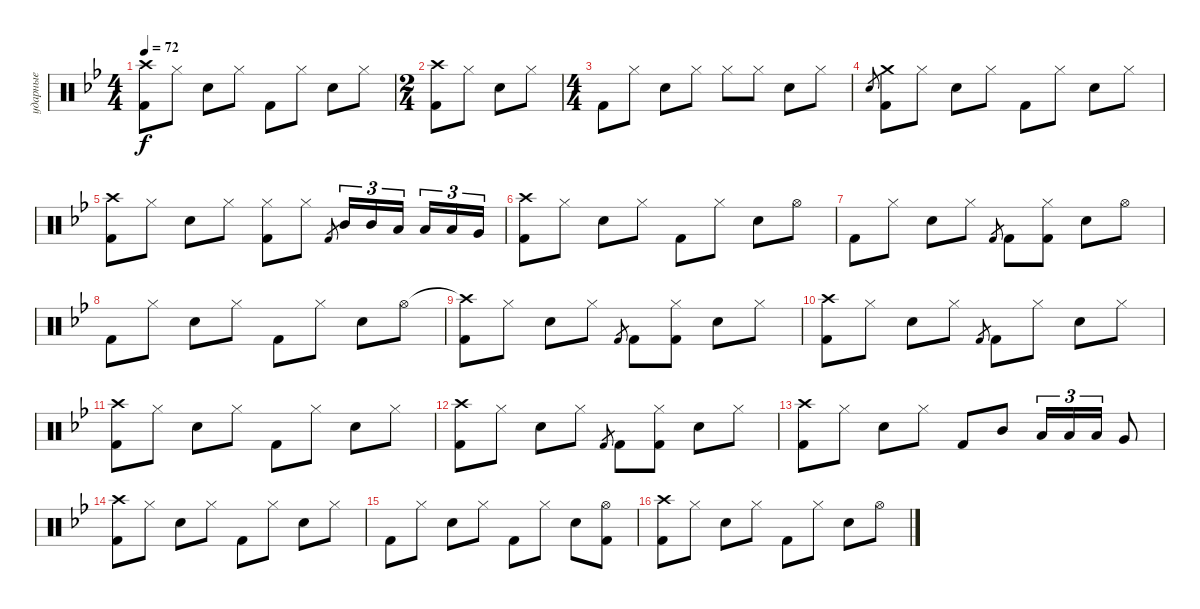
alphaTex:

\track ("ударные" "ударные") {instrument percussion}
\staff {score}
\articulation defaults
\ts (4 4)
\tempo 72
\clef neutral
\ks gminor
("Crash high (hit)" "Kick (hit) 2").8{dy f} "Hi-Hat (closed)".8 "Electric Snare (hit)".8 "Hi-Hat (closed)".8 "Kick (hit) 2".8 "Hi-Hat (closed)".8 "Electric Snare (hit)".8 "Hi-Hat (closed)".8 |
\ts (2 4)
("Crash high (hit)" "Kick (hit) 2").8 "Hi-Hat (closed)".8 "Electric Snare (hit)".8 "Hi-Hat (closed)".8 |
\ts (4 4)
"Kick (hit) 2".8 "Hi-Hat (closed)".8 "Electric Snare (hit)".8 "Hi-Hat (closed)".8 "Hi-Hat (closed)".8 "Hi-Hat (closed)".8 "Electric Snare (hit)".8 "Hi-Hat (closed)".8 |
"Electric Snare (hit)".8{gr} ("Crash medium (hit)" "Kick (hit) 2").8 "Hi-Hat (closed)".8 "Electric Snare (hit)".8 "Hi-Hat (closed)".8 "Kick (hit) 2".8 "Hi-Hat (closed)".8 "Electric Snare (hit)".8 "Hi-Hat (closed)".8 |
("Crash high (hit)" "Kick (hit) 2").8 "Hi-Hat (closed)".8 "Electric Snare (hit)".8 "Hi-Hat (closed)".8 ("Hi-Hat (closed)" "Kick (hit) 2").8 "Hi-Hat (closed)".8 "Kick (hit) 2".8{gr} "Mid Tom (hit)".16{tu (3 2)} "Mid Tom (hit)".16{tu (3 2)} "Low Tom (hit)".16{tu (3 2) beam splitsecondary} "Low Tom (hit)".16{tu (3 2)} "Low Tom (hit)".16{tu (3 2)} "Very Low Tom (hit)".16{tu (3 2)} |
("Crash high (hit)" "Kick (hit) 2").8 "Hi-Hat (closed)".8 "Electric Snare (hit)".8 "Hi-Hat (closed)".8 "Kick (hit) 2".8 "Hi-Hat (closed)".8 "Electric Snare (hit)".8 "Hi-Hat (open)".8 |
"Kick (hit) 2".8 "Hi-Hat (closed)".8 "Electric Snare (hit)".8 "Hi-Hat (closed)".8 "Kick (hit) 2".8{gr} "Kick (hit) 2".8 ("Hi-Hat (closed)" "Kick (hit) 2").8 "Electric Snare (hit)".8 "Hi-Hat (open)".8 |
"Kick (hit) 2".8 "Hi-Hat (closed)".8 "Electric Snare (hit)".8 "Hi-Hat (closed)".8 "Kick (hit) 2".8 "Hi-Hat (closed)".8 "Electric Snare (hit)".8 "Hi-Hat (open)".8 |
("Crash high (hit)"{t} "Kick (hit) 2").8 "Hi-Hat (closed)".8 "Electric Snare (hit)".8 "Hi-Hat (closed)".8 "Kick (hit) 2".8{gr} "Kick (hit) 2".8 ("Hi-Hat (closed)" "Kick (hit) 2").8 "Electric Snare (hit)".8 "Hi-Hat (closed)".8 |
("Crash high (hit)" "Kick (hit) 2").8 "Hi-Hat (closed)".8 "Electric Snare (hit)".8 "Hi-Hat (closed)".8 "Kick (hit) 2".8{gr} "Kick (hit) 2".8 "Hi-Hat (closed)".8 "Electric Snare (hit)".8 "Hi-Hat (closed)".8 |
("Crash high (hit)" "Kick (hit) 2").8 "Hi-Hat (closed)".8 "Electric Snare (hit)".8 "Hi-Hat (closed)".8 "Kick (hit) 2".8 "Hi-Hat (closed)".8 "Electric Snare (hit)".8 "Hi-Hat (closed)".8 |
("Crash high (hit)" "Kick (hit) 2").8 "Hi-Hat (closed)".8 "Electric Snare (hit)".8 "Hi-Hat (closed)".8 "Kick (hit) 2".8{gr} "Kick (hit) 2".8 ("Hi-Hat (closed)" "Kick (hit) 2").8 "Electric Snare (hit)".8 "Hi-Hat (closed)".8 |
("Crash high (hit)" "Kick (hit) 2").8 "Hi-Hat (closed)".8 "Electric Snare (hit)".8 "Hi-Hat (closed)".8 "Kick (hit) 2".8 "Mid Tom (hit)".8 "Low Tom (hit)".16{tu (3 2)} "Low Tom (hit)".16{tu (3 2)} "Low Tom (hit)".16{tu (3 2)} "Very Low Tom (hit)".8 |
("Crash high (hit)" "Kick (hit) 2").8 "Hi-Hat (closed)".8 "Electric Snare (hit)".8 "Hi-Hat (closed)".8 "Kick (hit) 2".8 "Hi-Hat (closed)".8 "Electric Snare (hit)".8 "Hi-Hat (closed)".8 |
"Kick (hit) 2".8 "Hi-Hat (closed)".8 "Electric Snare (hit)".8 "Hi-Hat (closed)".8 "Kick (hit) 2".8 "Hi-Hat (closed)".8 "Electric Snare (hit)".8 ("Hi-Hat (open)" "Kick (hit) 2").8 |
("Crash high (hit)" "Kick (hit) 2").8 "Hi-Hat (closed)".8 "Electric Snare (hit)".8 "Hi-Hat (closed)".8 "Kick (hit) 2".8 "Hi-Hat (closed)".8 "Electric Snare (hit)".8 "Hi-Hat (open)".8
